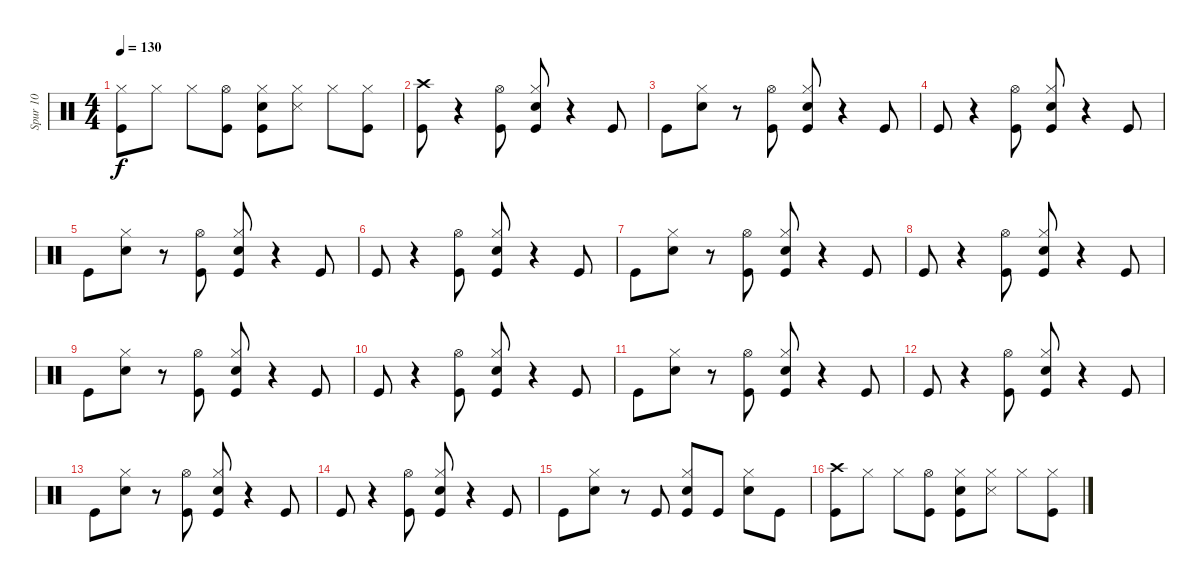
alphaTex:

\track ("Spur 10" "Spur 10") {instrument percussion}
\staff {score}
\articulation defaults
\ts (4 4)
\tempo 130
\clef neutral
\ks c
("Kick (hit)" "Hi-Hat (closed)").8{dy f} "Hi-Hat (closed)".8 "Hi-Hat (closed)".8 ("Kick (hit)" "Hi-Hat (open)").8 ("Snare (hit) 2" "Kick (hit)" "Hi-Hat (closed)").8 ("Snare (side stick) 3" "Hi-Hat (closed)").8 "Hi-Hat (closed)".8 ("Kick (hit)" "Hi-Hat (closed)").8 |
("Kick (hit)" "Crash high (hit)").8 r.4 ("Hi-Hat (open)" "Kick (hit)").8 ("Hi-Hat (closed)" "Snare (hit) 2" "Kick (hit)").8 r.4 "Kick (hit)".8 |
"Kick (hit)".8 ("Hi-Hat (closed)" "Snare (hit) 2").8 r.8 ("Kick (hit)" "Hi-Hat (open)").8 ("Hi-Hat (closed)" "Snare (hit) 2" "Kick (hit)").8 r.4 "Kick (hit)".8 |
"Kick (hit)".8 r.4 ("Hi-Hat (open)" "Kick (hit)").8 ("Hi-Hat (closed)" "Snare (hit) 2" "Kick (hit)").8 r.4 "Kick (hit)".8 |
"Kick (hit)".8 ("Snare (hit) 2" "Hi-Hat (closed)").8 r.8 ("Kick (hit)" "Hi-Hat (open)").8 ("Hi-Hat (closed)" "Snare (hit) 2" "Kick (hit)").8 r.4 "Kick (hit)".8 |
"Kick (hit)".8 r.4 ("Hi-Hat (open)" "Kick (hit)").8 ("Hi-Hat (closed)" "Snare (hit) 2" "Kick (hit)").8 r.4 "Kick (hit)".8 |
"Kick (hit)".8 ("Snare (hit) 2" "Hi-Hat (closed)").8 r.8 ("Kick (hit)" "Hi-Hat (open)").8 ("Hi-Hat (closed)" "Snare (hit) 2" "Kick (hit)").8 r.4 "Kick (hit)".8 |
"Kick (hit)".8 r.4 ("Hi-Hat (open)" "Kick (hit)").8 ("Hi-Hat (closed)" "Snare (hit) 2" "Kick (hit)").8 r.4 "Kick (hit)".8 |
"Kick (hit)".8 ("Snare (hit) 2" "Hi-Hat (closed)").8 r.8 ("Kick (hit)" "Hi-Hat (open)").8 ("Hi-Hat (closed)" "Snare (hit) 2" "Kick (hit)").8 r.4 "Kick (hit)".8 |
"Kick (hit)".8 r.4 ("Hi-Hat (open)" "Kick (hit)").8 ("Hi-Hat (closed)" "Snare (hit) 2" "Kick (hit)").8 r.4 "Kick (hit)".8 |
"Kick (hit)".8 ("Snare (hit) 2" "Hi-Hat (closed)").8 r.8 ("Kick (hit)" "Hi-Hat (open)").8 ("Hi-Hat (closed)" "Snare (hit) 2" "Kick (hit)").8 r.4 "Kick (hit)".8 |
"Kick (hit)".8 r.4 ("Hi-Hat (open)" "Kick (hit)").8 ("Hi-Hat (closed)" "Snare (hit) 2" "Kick (hit)").8 r.4 "Kick (hit)".8 |
"Kick (hit)".8 ("Snare (hit) 2" "Hi-Hat (closed)").8 r.8 ("Kick (hit)" "Hi-Hat (open)").8 ("Hi-Hat (closed)" "Snare (hit) 2" "Kick (hit)").8 r.4 "Kick (hit)".8 |
"Kick (hit)".8 r.4 ("Hi-Hat (open)" "Kick (hit)").8 ("Hi-Hat (closed)" "Snare (hit) 2" "Kick (hit)").8 r.4 "Kick (hit)".8 |
"Kick (hit)".8 ("Snare (hit) 2" "Hi-Hat (closed)").8 r.8 "Kick (hit)".8 ("Hi-Hat (closed)" "Kick (hit)" "Snare (hit) 2").8 "Kick (hit)".8 ("Hi-Hat (closed)" "Snare (hit) 2").8 "Kick (hit)".8 |
("Kick (hit)" "Crash high (hit)").8 "Hi-Hat (closed)".8 "Hi-Hat (closed)".8 ("Kick (hit)" "Hi-Hat (open)").8 ("Snare (hit) 2" "Kick (hit)" "Hi-Hat (closed)").8 ("Snare (side stick) 3" "Hi-Hat (closed)").8 "Hi-Hat (closed)".8 ("Kick (hit)" "Hi-Hat (closed)").8
